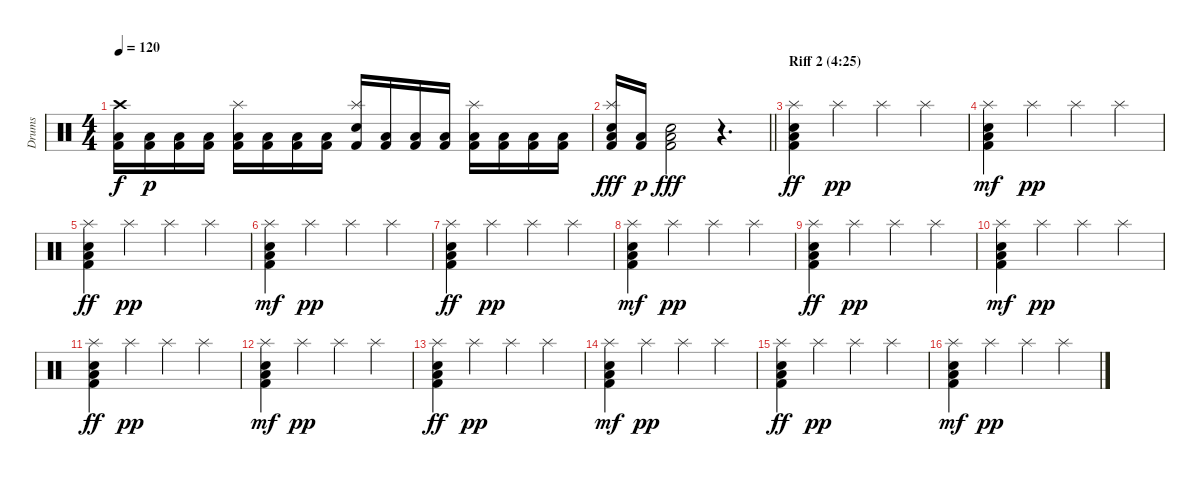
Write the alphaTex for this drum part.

\track ("Drums" "Drums") {instrument percussion}
\staff {score}
\articulation defaults
\ts (4 4)
\tempo 120
\clef neutral
\ks c
("Crash high (hit)" "Low Floor Tom (hit)" "Kick (hit) 2").16{dy f} ("Low Floor Tom (hit)" "Kick (hit) 2").16{dy p} ("Low Floor Tom (hit)" "Kick (hit) 2").16 ("Low Floor Tom (hit)" "Kick (hit) 2").16 ("Splash (hit)" "Low Floor Tom (hit)" "Kick (hit) 2").16 ("Low Floor Tom (hit)" "Kick (hit) 2").16 ("Low Floor Tom (hit)" "Kick (hit) 2").16 ("Low Floor Tom (hit)" "Kick (hit) 2").16 ("Splash (hit)" "Snare (hit) 2" "Kick (hit) 2").16 ("Low Floor Tom (hit)" "Kick (hit) 2").16 ("Low Floor Tom (hit)" "Kick (hit) 2").16 ("Low Floor Tom (hit)" "Kick (hit) 2").16 ("Splash (hit)" "Low Floor Tom (hit)" "Kick (hit) 2").16 ("Low Floor Tom (hit)" "Kick (hit) 2").16 ("Low Floor Tom (hit)" "Kick (hit) 2").16 ("Low Floor Tom (hit)" "Kick (hit) 2").16 |
\barLineRight lightlight
("Splash (hit)" "Snare (hit) 2" "Low Floor Tom (hit)" "Kick (hit) 2").16{dy fff} ("Low Floor Tom (hit)" "Kick (hit) 2").16{dy p} ("Snare (hit) 2" "Low Floor Tom (hit)" "Kick (hit) 2").2{dy fff} r.4{d} |
\section ("" "Riff 2 (4:25)")
("Splash (hit)" "Snare (hit) 2" "Low Floor Tom (hit)" "Kick (hit) 2").4{dy ff volume 14} "Splash (hit)".4{dy pp} "Splash (hit)".4 "Splash (hit)".4 |
("Splash (hit)" "Low Floor Tom (hit)" "Snare (hit) 2" "Kick (hit) 2").4{dy mf} "Splash (hit)".4{dy pp} "Splash (hit)".4 "Splash (hit)".4 |
("Splash (hit)" "Snare (hit) 2" "Low Floor Tom (hit)" "Kick (hit) 2").4{dy ff} "Splash (hit)".4{dy pp} "Splash (hit)".4 "Splash (hit)".4 |
("Splash (hit)" "Low Floor Tom (hit)" "Snare (hit) 2" "Kick (hit) 2").4{dy mf} "Splash (hit)".4{dy pp} "Splash (hit)".4 "Splash (hit)".4 |
("Splash (hit)" "Snare (hit) 2" "Low Floor Tom (hit)" "Kick (hit) 2").4{dy ff} "Splash (hit)".4{dy pp} "Splash (hit)".4 "Splash (hit)".4 |
("Splash (hit)" "Low Floor Tom (hit)" "Snare (hit) 2" "Kick (hit) 2").4{dy mf} "Splash (hit)".4{dy pp} "Splash (hit)".4 "Splash (hit)".4 |
("Splash (hit)" "Snare (hit) 2" "Low Floor Tom (hit)" "Kick (hit) 2").4{dy ff} "Splash (hit)".4{dy pp} "Splash (hit)".4 "Splash (hit)".4 |
("Splash (hit)" "Low Floor Tom (hit)" "Snare (hit) 2" "Kick (hit) 2").4{dy mf} "Splash (hit)".4{dy pp} "Splash (hit)".4 "Splash (hit)".4 |
("Splash (hit)" "Snare (hit) 2" "Low Floor Tom (hit)" "Kick (hit) 2").4{dy ff volume 14} "Splash (hit)".4{dy pp} "Splash (hit)".4 "Splash (hit)".4 |
("Splash (hit)" "Low Floor Tom (hit)" "Snare (hit) 2" "Kick (hit) 2").4{dy mf} "Splash (hit)".4{dy pp} "Splash (hit)".4 "Splash (hit)".4 |
("Splash (hit)" "Snare (hit) 2" "Low Floor Tom (hit)" "Kick (hit) 2").4{dy ff} "Splash (hit)".4{dy pp} "Splash (hit)".4 "Splash (hit)".4 |
("Splash (hit)" "Low Floor Tom (hit)" "Snare (hit) 2" "Kick (hit) 2").4{dy mf} "Splash (hit)".4{dy pp} "Splash (hit)".4 "Splash (hit)".4 |
("Splash (hit)" "Snare (hit) 2" "Low Floor Tom (hit)" "Kick (hit) 2").4{dy ff} "Splash (hit)".4{dy pp} "Splash (hit)".4 "Splash (hit)".4 |
("Splash (hit)" "Low Floor Tom (hit)" "Snare (hit) 2" "Kick (hit) 2").4{dy mf} "Splash (hit)".4{dy pp} "Splash (hit)".4 "Splash (hit)".4
